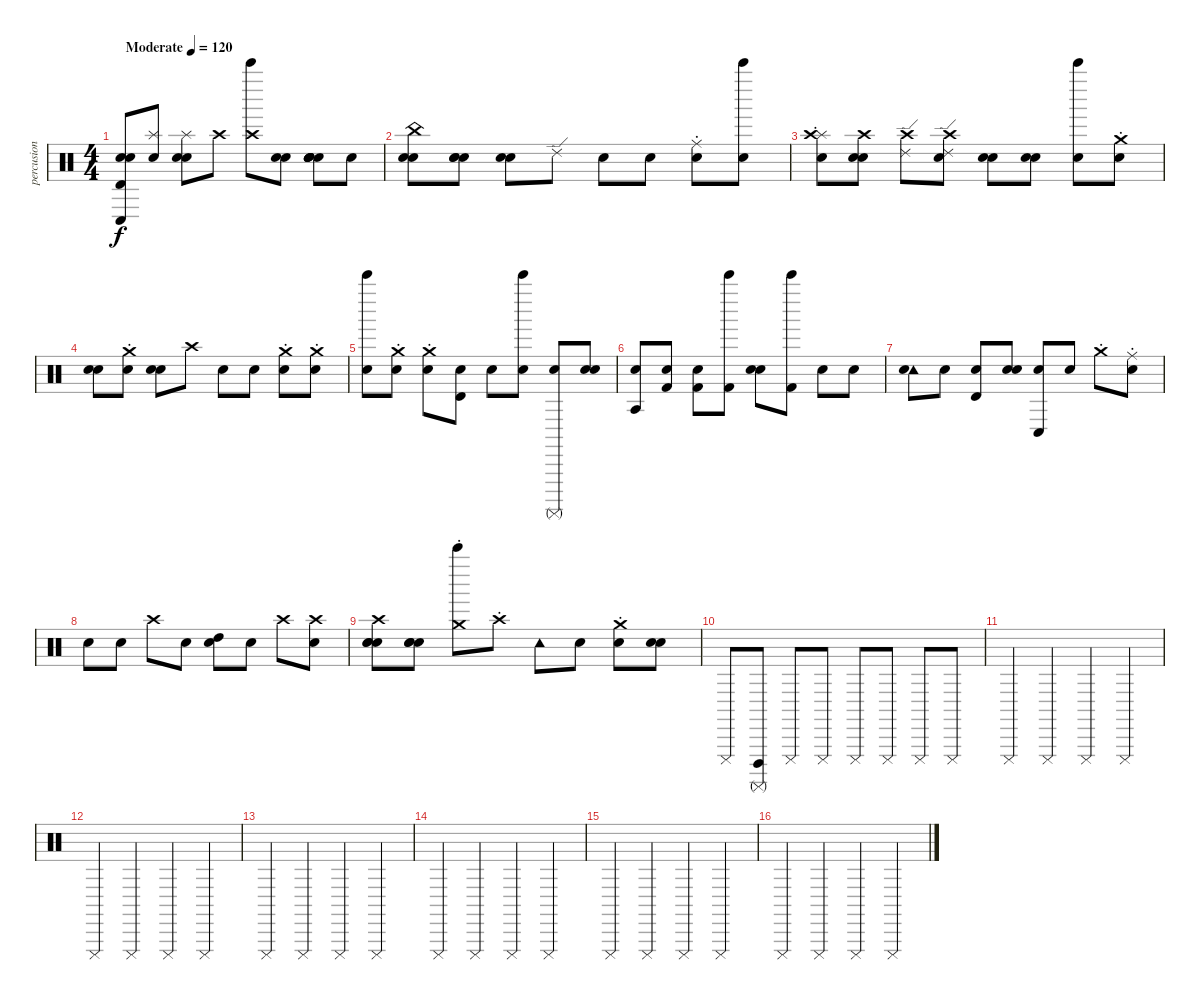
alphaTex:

\track ("percusion de mierda" "percusion ") {instrument percussion}
\staff {score}
\articulation defaults
\ts (4 4)
\tempo (120 "Moderate")
\clef neutral
\ks c
("Conga low (hit)" "Snare (hit)" "Timbale high (hit)" "Snare (hit)").8{dy f} ("Splash (hit)" "Snare (hit)").8 ("Splash (hit)" "Snare (hit)" "Snare (hit)").8 "Crash high (hit)".8 ("Bell Tree (hit)" "Crash high (hit)").8 ("Snare (hit)" "Snare (hit)").8 ("Snare (hit)" "Snare (hit)" "Snare (hit)" "Snare (hit)" "Snare (hit)").8 "Snare (hit)".8 |
("China (choke)" "Snare (hit)" "Snare (hit)").8 ("Snare (hit)" "Snare (hit)" "Snare (hit)").8 ("Snare (hit)" "Snare (hit)").8 "Ride (edge) 2".8 "Snare (hit)".8 "Snare (hit)".8 ("Ride (choke)" "Snare (hit)").8 ("Bell Tree (hit)" "Snare (hit)").8 |
("Splash (choke)" "Snare (hit)" "Crash high (hit)").8 ("Snare (hit)" "Snare (hit)" "Crash high (hit)").8 ("Crash high (hit)" "Ride (edge) 2").8 ("Crash high (hit)" "Ride (edge) 2" "Snare (hit)").8 ("Snare (hit)" "Snare (hit)").8 ("Snare (hit)" "Snare (hit)").8 ("Bell Tree (hit)" "Snare (hit)").8 ("Crash medium (choke)" "Snare (hit)").8 |
("Snare (hit)" "Snare (hit)").8 ("Snare (hit)" "Crash medium (choke)").8 ("Snare (hit)" "Snare (hit)").8 "Crash high (hit)".8 "Snare (hit)".8 "Snare (hit)".8 ("Snare (hit)" "Crash medium (choke)").8 ("Snare (hit)" "Crash medium (choke)").8 |
("Bell Tree (hit)" "Snare (hit)").8 ("Snare (hit)" "Crash medium (choke)").8 ("Crash medium (choke)" "Snare (hit)").8 ("Snare (hit)" "Timbale high (hit)").8 "Snare (hit)".8 ("Bell Tree (hit)" "Snare (hit)").8 ("Surdo (mute)" "Snare (hit)").8 ("Snare (hit)" "Snare (hit)").8 |
("Snare (hit)" "Agogo tow (hit)").8 ("Kick (hit) 2" "Snare (hit)").8 ("Kick (hit) 2" "Snare (hit)").8 ("Kick (hit) 2" "Bell Tree (hit)").8 ("Snare (hit)" "Snare (hit)").8 ("Bell Tree (hit)" "Kick (hit) 2").8 "Snare (hit)".8 "Snare (hit)".8 |
("Tambourine (hit)" "Snare (hit)").8 "Snare (hit)".8 ("Snare (hit)" "Timbale high (hit)").8 ("Snare (hit)" "Snare (hit)").8 ("Snare (hit)" "Conga low (hit)").8 "Snare (hit)".8 "Crash medium (choke)".8 ("Snare (hit)" "Ride (choke)").8 |
"Snare (hit)".8 "Snare (hit)".8 "Crash high (hit)".8 "Snare (hit)".8 ("Snare (hit)" "High Tom (hit)").8 "Snare (hit)".8 "Crash high (hit)".8 ("Snare (hit)" "Crash high (hit)").8 |
("Snare (hit)" "Snare (hit)" "Snare (hit)" "Crash high (hit)").8 ("Snare (hit)" "Snare (hit)" "Snare (hit)").8 ("Crash medium (choke)" "Bell Tree (hit)").8 "Crash high (choke)".8 "Tambourine (hit)".8 "Snare (hit)".8 ("Crash medium (choke)" "Snare (hit)").8 ("Snare (hit)" "Snare (hit)").8 |
"Cuica (mute)".8 ("Cuica (open)" "Surdo (mute)").8 "Cuica (mute)".8 "Cuica (mute)".8 "Cuica (mute)".8 "Cuica (mute)".8 "Cuica (mute)".8 "Cuica (mute)".8 |
"Cuica (mute)".4 "Cuica (mute)".4 "Cuica (mute)".4 "Cuica (mute)".4 |
"Cuica (mute)".4 "Cuica (mute)".4 "Cuica (mute)".4 "Cuica (mute)".4 |
"Cuica (mute)".4 "Cuica (mute)".4 "Cuica (mute)".4 "Cuica (mute)".4 |
"Cuica (mute)".4 "Cuica (mute)".4 "Cuica (mute)".4 "Cuica (mute)".4 |
"Cuica (mute)".4 "Cuica (mute)".4 "Cuica (mute)".4 "Cuica (mute)".4 |
"Cuica (mute)".4 "Cuica (mute)".4 "Cuica (mute)".4 "Cuica (mute)".4
